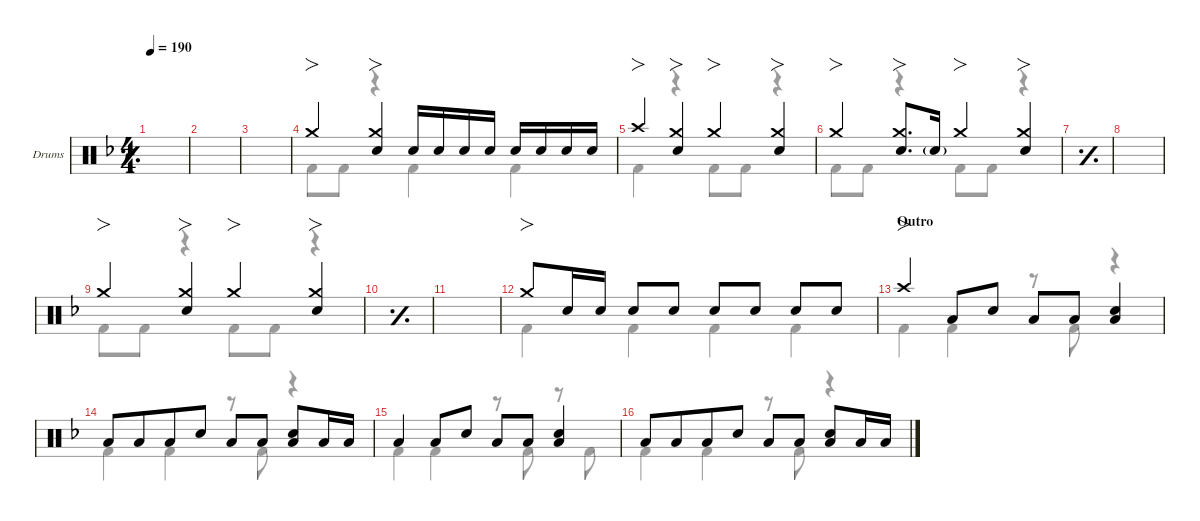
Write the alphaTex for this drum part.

\defaultSystemsLayout 4
\hideDynamics
\bracketExtendMode nobrackets
\firstSystemTrackNameOrientation horizontal
\track ("Drums" "Drums") {defaultSystemsLayout 4 instrument percussion}
\staff {score}
\articulation defaults
\voice
\ts (4 4)
\tempo 190
\clef neutral
\simile simple
\scale
0.267605
\ks dminor
|
\scale
0.243474 |
\scale
0.244789 |
\simile none
\scale
0.244132 "Crash medium (hit)"{acc forcenatural}.4{fo} ("Crash medium (hit)"{acc forcenatural} "Snare (hit) 2"{acc forcenatural}).4{fo beam merge} "Snare (hit) 2"{acc forcenatural}.16 "Snare (hit) 2"{acc forcenatural}.16{dy mp} "Snare (hit) 2"{acc forcenatural}.16{dy mf} "Snare (hit) 2"{acc forcenatural}.16{dy mp beam split} "Snare (hit) 2"{acc forcenatural}.16{dy f} "Snare (hit) 2"{acc forcenatural}.16{dy mp} "Snare (hit) 2"{acc forcenatural}.16{dy mf} "Snare (hit) 2"{acc forcenatural}.16{dy mp beam split} |
\scale
0.267605 "Crash high (hit)"{acc forcenatural}.4{fo dy f} ("Crash medium (hit)"{acc forcenatural} "Snare (hit) 2"{acc forcenatural}).4{fo} "Crash medium (hit)"{acc forcenatural}.4{fo} ("Crash medium (hit)"{acc forcenatural} "Snare (hit) 2"{acc forcenatural}).4{fo} |
\scale
0.243474 "Crash medium (hit)"{acc forcenatural}.4{fo} ("Crash medium (hit)"{acc forcenatural} "Snare (hit) 2"{acc forcenatural}).8{fo d} "Snare (hit) 2"{g acc forcenatural}.16{dy mf} "Crash medium (hit)"{acc forcenatural}.4{fo dy f} ("Crash medium (hit)"{acc forcenatural} "Snare (hit) 2"{acc forcenatural}).4{fo} |
\simile simple
\scale
0.244789 |
\scale
0.244132 |
\simile none
\scale
0.267605 "Crash medium (hit)"{acc forcenatural}.4{fo} ("Crash medium (hit)"{acc forcenatural} "Snare (hit) 2"{acc forcenatural}).4{fo} "Crash medium (hit)"{acc forcenatural}.4{fo} ("Crash medium (hit)"{acc forcenatural} "Snare (hit) 2"{acc forcenatural}).4{fo} |
\simile simple
\scale
0.244132 |
\scale
0.244132 |
\simile none
\scale
0.244132 "Crash medium (hit)"{acc forcenatural}.8{fo} "Snare (hit) 2"{acc forcenatural}.16 "Snare (hit) 2"{acc forcenatural}.16{dy mf beam split} "Snare (hit) 2"{acc forcenatural}.8{dy f} "Snare (hit) 2"{acc forcenatural}.8 "Snare (hit) 2"{acc forcenatural}.8 "Snare (hit) 2"{acc forcenatural}.8 "Snare (hit) 2"{acc forcenatural}.8 "Snare (hit) 2"{acc forcenatural}.8 |
\section ("" "Outro")
\scale
0.267605 "Crash high (hit)"{acc forcenatural}.4{fo} "Low Tom (hit)"{acc forcenatural}.8 "Snare (hit) 2"{acc forcenatural}.8 "Low Tom (hit)"{acc forcenatural}.8 "Low Tom (hit)"{acc forcenatural}.8 ("Low Tom (hit)"{acc forcenatural} "Snare (hit) 2"{acc forcenatural}).4 |
\scale
0.244132 "Low Tom (hit)"{acc forcenatural}.8{beam merge} "Low Tom (hit)"{acc forcenatural}.8{beam merge} "Low Tom (hit)"{acc forcenatural}.8{beam merge} "Snare (hit) 2"{acc forcenatural}.8 "Low Tom (hit)"{acc forcenatural}.8 "Low Tom (hit)"{acc forcenatural}.8{beam split} ("Low Tom (hit)"{acc forcenatural} "Snare (hit) 2"{acc forcenatural}).8 "Low Tom (hit)"{acc forcenatural}.16 "Low Tom (hit)"{acc forcenatural}.16 |
\scale
0.244132 "Low Tom (hit)"{acc forcenatural}.4 "Low Tom (hit)"{acc forcenatural}.8 "Snare (hit) 2"{acc forcenatural}.8 "Low Tom (hit)"{acc forcenatural}.8 "Low Tom (hit)"{acc forcenatural}.8 ("Low Tom (hit)"{acc forcenatural} "Snare (hit) 2"{acc forcenatural}).4 |
\scale
0.244132 "Low Tom (hit)"{acc forcenatural}.8{beam merge} "Low Tom (hit)"{acc forcenatural}.8{beam merge} "Low Tom (hit)"{acc forcenatural}.8 "Snare (hit) 2"{acc forcenatural}.8 "Low Tom (hit)"{acc forcenatural}.8 "Low Tom (hit)"{acc forcenatural}.8{beam split} ("Snare (hit) 2"{acc forcenatural} "Low Tom (hit)"{acc forcenatural}).8 "Low Tom (hit)"{acc forcenatural}.16 "Low Tom (hit)"{acc forcenatural}.16
\voice
\clef neutral
\ottava regular
\simile simple
\scale
0.267605
\ks dminor
|
\scale
0.243474 |
\scale
0.244789 |
\simile none
\scale
0.244132 "Kick (hit) 2"{acc forcenatural}.8 "Kick (hit) 2"{acc forcenatural}.8 r.4 "Kick (hit) 2"{acc forcenatural}.4 "Kick (hit) 2"{acc forcenatural}.4 |
\scale
0.267605 "Kick (hit) 2"{acc forcenatural}.4 r.4 "Kick (hit) 2"{acc forcenatural}.8 "Kick (hit) 2"{acc forcenatural}.8 r.4 |
\scale
0.243474 "Kick (hit) 2"{acc forcenatural}.8 "Kick (hit) 2"{acc forcenatural}.8 r.4 "Kick (hit) 2"{acc forcenatural}.8 "Kick (hit) 2"{acc forcenatural}.8 r.4 |
\simile simple
\scale
0.244789 |
\scale
0.244132 |
\simile none
\scale
0.267605 "Kick (hit) 2"{acc forcenatural}.8 "Kick (hit) 2"{acc forcenatural}.8 r.4 "Kick (hit) 2"{acc forcenatural}.8 "Kick (hit) 2"{acc forcenatural}.8 r.4 |
\simile simple
\scale
0.244132 |
\scale
0.244132 |
\simile none
\scale
0.244132 "Kick (hit) 2"{acc forcenatural}.4 "Kick (hit) 2"{acc forcenatural}.4 "Kick (hit) 2"{acc forcenatural}.4 "Kick (hit) 2"{acc forcenatural}.4 |
\scale
0.267605 "Kick (hit) 2"{acc forcenatural}.4 "Kick (hit) 2"{acc forcenatural}.4 r.8 "Kick (hit) 2"{acc forcenatural}.8 r.4 |
\scale
0.244132 "Kick (hit) 2"{acc forcenatural}.4 "Kick (hit) 2"{acc forcenatural}.4 r.8 "Kick (hit) 2"{acc forcenatural}.8 r.4 |
\scale
0.244132 "Kick (hit) 2"{acc forcenatural}.4 "Kick (hit) 2"{acc forcenatural}.4 r.8 "Kick (hit) 2"{acc forcenatural}.8 r.8 "Kick (hit) 2"{acc forcenatural}.8 |
\scale
0.244132 "Kick (hit) 2"{acc forcenatural}.4 "Kick (hit) 2"{acc forcenatural}.4 r.8 "Kick (hit) 2"{acc forcenatural}.8 r.4
